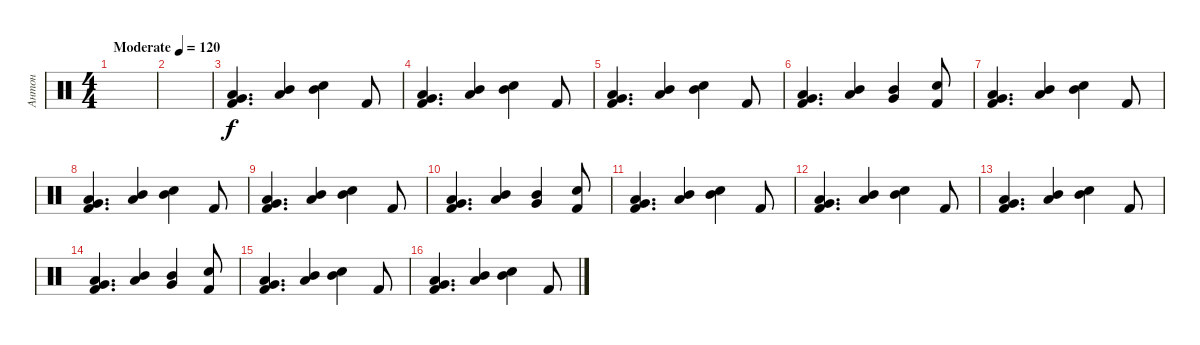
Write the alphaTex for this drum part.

\track ("Антон" "Антон") {instrument percussion}
\staff {score}
\articulation defaults
\ts (4 4)
\tempo (120 "Moderate")
\clef neutral
\ks c
|
|
("Very Low Tom (hit)" "Low Tom (hit)" "Kick (hit) 2").4{d} ("Low Tom (hit)" "Mid Tom (hit)").4 ("Mid Tom (hit)" "Electric Snare (hit)").4 "Kick (hit) 2".8 |
("Very Low Tom (hit)" "Low Tom (hit)" "Kick (hit) 2").4{d} ("Low Tom (hit)" "Mid Tom (hit)").4 ("Mid Tom (hit)" "Electric Snare (hit)").4 "Kick (hit) 2".8 |
("Very Low Tom (hit)" "Low Tom (hit)" "Kick (hit) 2").4{d} ("Low Tom (hit)" "Mid Tom (hit)").4 ("Mid Tom (hit)" "Electric Snare (hit)").4 "Kick (hit) 2".8 |
("Very Low Tom (hit)" "Low Tom (hit)" "Kick (hit) 2").4{d} ("Low Tom (hit)" "Mid Tom (hit)").4 ("Mid Tom (hit)" "Very Low Tom (hit)").4 ("Electric Snare (hit)" "Kick (hit) 2").8 |
("Very Low Tom (hit)" "Low Tom (hit)" "Kick (hit) 2").4{d} ("Low Tom (hit)" "Mid Tom (hit)").4 ("Mid Tom (hit)" "Electric Snare (hit)").4 "Kick (hit) 2".8 |
("Very Low Tom (hit)" "Low Tom (hit)" "Kick (hit) 2").4{d} ("Low Tom (hit)" "Mid Tom (hit)").4 ("Mid Tom (hit)" "Electric Snare (hit)").4 "Kick (hit) 2".8 |
("Very Low Tom (hit)" "Low Tom (hit)" "Kick (hit) 2").4{d} ("Low Tom (hit)" "Mid Tom (hit)").4 ("Mid Tom (hit)" "Electric Snare (hit)").4 "Kick (hit) 2".8 |
("Very Low Tom (hit)" "Low Tom (hit)" "Kick (hit) 2").4{d} ("Low Tom (hit)" "Mid Tom (hit)").4 ("Mid Tom (hit)" "Very Low Tom (hit)").4 ("Electric Snare (hit)" "Kick (hit) 2").8 |
("Very Low Tom (hit)" "Low Tom (hit)" "Kick (hit) 2").4{d} ("Low Tom (hit)" "Mid Tom (hit)").4 ("Mid Tom (hit)" "Electric Snare (hit)").4 "Kick (hit) 2".8 |
("Very Low Tom (hit)" "Low Tom (hit)" "Kick (hit) 2").4{d} ("Low Tom (hit)" "Mid Tom (hit)").4 ("Mid Tom (hit)" "Electric Snare (hit)").4 "Kick (hit) 2".8 |
("Very Low Tom (hit)" "Low Tom (hit)" "Kick (hit) 2").4{d} ("Low Tom (hit)" "Mid Tom (hit)").4 ("Mid Tom (hit)" "Electric Snare (hit)").4 "Kick (hit) 2".8 |
("Very Low Tom (hit)" "Low Tom (hit)" "Kick (hit) 2").4{d} ("Low Tom (hit)" "Mid Tom (hit)").4 ("Mid Tom (hit)" "Very Low Tom (hit)").4 ("Electric Snare (hit)" "Kick (hit) 2").8 |
("Very Low Tom (hit)" "Low Tom (hit)" "Kick (hit) 2").4{d} ("Low Tom (hit)" "Mid Tom (hit)").4 ("Mid Tom (hit)" "Electric Snare (hit)").4 "Kick (hit) 2".8 |
("Very Low Tom (hit)" "Low Tom (hit)" "Kick (hit) 2").4{d} ("Low Tom (hit)" "Mid Tom (hit)").4 ("Mid Tom (hit)" "Electric Snare (hit)").4 "Kick (hit) 2".8
